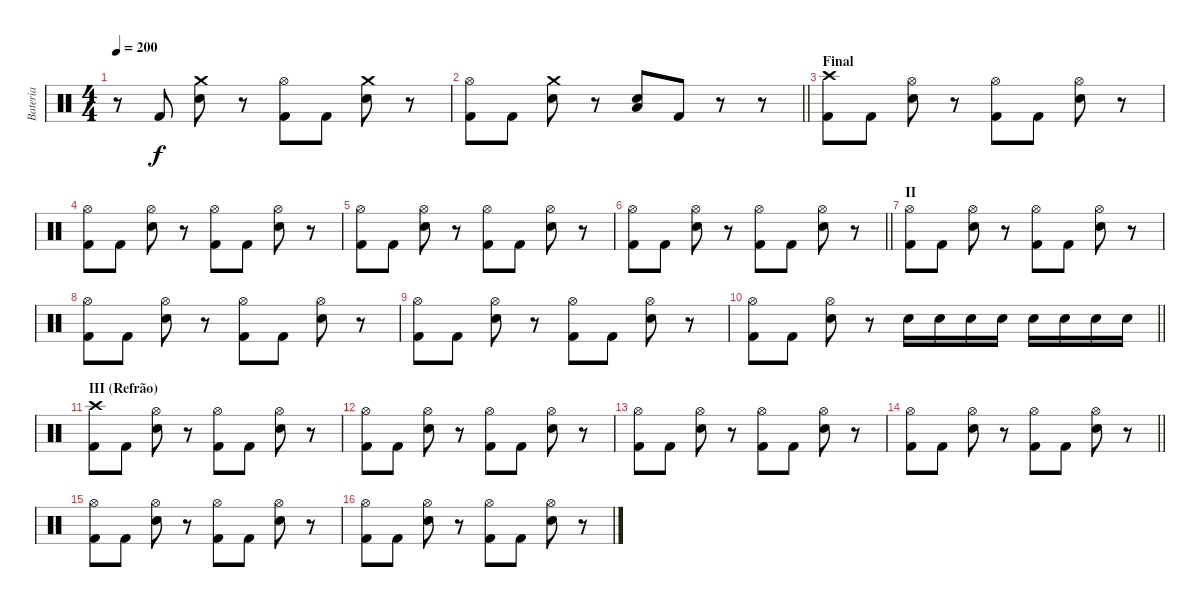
\track ("Bateria" "Bateria") {instrument percussion}
\staff {score}
\articulation defaults
\ts (4 4)
\tempo 200
\clef neutral
\ks c
r.8{dy f} "Kick (hit) 2".8 ("Electric Snare (hit)" "Crash medium (hit)").8 r.8 ("Kick (hit) 2" "Hi-Hat (open)").8 "Kick (hit) 2".8 ("Electric Snare (hit)" "Crash medium (hit)").8 r.8 |
\barLineRight lightlight
("Kick (hit) 2" "Hi-Hat (open)").8 "Kick (hit) 2".8 ("Electric Snare (hit)" "Crash medium (hit)").8 r.8 ("Electric Snare (hit)" "Low Tom (hit)").8 "Kick (hit) 2".8 r.8 r.8 |
\section ("" "Final")
("Kick (hit) 2" "Crash high (hit)").8 "Kick (hit) 2".8 ("Electric Snare (hit)" "Hi-Hat (open)").8 r.8 ("Kick (hit) 2" "Hi-Hat (open)").8 "Kick (hit) 2".8 ("Electric Snare (hit)" "Hi-Hat (open)").8 r.8 |
("Kick (hit) 2" "Hi-Hat (open)").8 "Kick (hit) 2".8 ("Electric Snare (hit)" "Hi-Hat (open)").8 r.8 ("Kick (hit) 2" "Hi-Hat (open)").8 "Kick (hit) 2".8 ("Electric Snare (hit)" "Hi-Hat (open)").8 r.8 |
("Kick (hit) 2" "Hi-Hat (open)").8 "Kick (hit) 2".8 ("Electric Snare (hit)" "Hi-Hat (open)").8 r.8 ("Kick (hit) 2" "Hi-Hat (open)").8 "Kick (hit) 2".8 ("Electric Snare (hit)" "Hi-Hat (open)").8 r.8 |
\barLineRight lightlight
("Kick (hit) 2" "Hi-Hat (open)").8 "Kick (hit) 2".8 ("Electric Snare (hit)" "Hi-Hat (open)").8 r.8 ("Kick (hit) 2" "Hi-Hat (open)").8 "Kick (hit) 2".8 ("Electric Snare (hit)" "Hi-Hat (open)").8 r.8 |
\section ("" "II")
("Kick (hit) 2" "Hi-Hat (open)").8 "Kick (hit) 2".8 ("Electric Snare (hit)" "Hi-Hat (open)").8 r.8 ("Kick (hit) 2" "Hi-Hat (open)").8 "Kick (hit) 2".8 ("Electric Snare (hit)" "Hi-Hat (open)").8 r.8 |
("Kick (hit) 2" "Hi-Hat (open)").8 "Kick (hit) 2".8 ("Electric Snare (hit)" "Hi-Hat (open)").8 r.8 ("Kick (hit) 2" "Hi-Hat (open)").8 "Kick (hit) 2".8 ("Electric Snare (hit)" "Hi-Hat (open)").8 r.8 |
("Kick (hit) 2" "Hi-Hat (open)").8 "Kick (hit) 2".8 ("Electric Snare (hit)" "Hi-Hat (open)").8 r.8 ("Kick (hit) 2" "Hi-Hat (open)").8 "Kick (hit) 2".8 ("Electric Snare (hit)" "Hi-Hat (open)").8 r.8 |
\barLineRight lightlight
("Kick (hit) 2" "Hi-Hat (open)").8 "Kick (hit) 2".8 ("Electric Snare (hit)" "Hi-Hat (open)").8 r.8 "Electric Snare (hit)".16 "Electric Snare (hit)".16 "Electric Snare (hit)".16 "Electric Snare (hit)".16 "Electric Snare (hit)".16 "Electric Snare (hit)".16 "Electric Snare (hit)".16 "Electric Snare (hit)".16 |
\section ("" "III (Refrão)")
("Kick (hit) 2" "Crash high (hit)").8 "Kick (hit) 2".8 ("Electric Snare (hit)" "Hi-Hat (open)").8 r.8 ("Kick (hit) 2" "Hi-Hat (open)").8 "Kick (hit) 2".8 ("Electric Snare (hit)" "Hi-Hat (open)").8 r.8 |
("Kick (hit) 2" "Hi-Hat (open)").8 "Kick (hit) 2".8 ("Electric Snare (hit)" "Hi-Hat (open)").8 r.8 ("Kick (hit) 2" "Hi-Hat (open)").8 "Kick (hit) 2".8 ("Electric Snare (hit)" "Hi-Hat (open)").8 r.8 |
("Kick (hit) 2" "Hi-Hat (open)").8 "Kick (hit) 2".8 ("Electric Snare (hit)" "Hi-Hat (open)").8 r.8 ("Kick (hit) 2" "Hi-Hat (open)").8 "Kick (hit) 2".8 ("Electric Snare (hit)" "Hi-Hat (open)").8 r.8 |
\barLineRight lightlight
("Kick (hit) 2" "Hi-Hat (open)").8 "Kick (hit) 2".8 ("Electric Snare (hit)" "Hi-Hat (open)").8 r.8 ("Kick (hit) 2" "Hi-Hat (open)").8 "Kick (hit) 2".8 ("Electric Snare (hit)" "Hi-Hat (open)").8 r.8 |
("Kick (hit) 2" "Hi-Hat (open)").8 "Kick (hit) 2".8 ("Electric Snare (hit)" "Hi-Hat (open)").8 r.8 ("Kick (hit) 2" "Hi-Hat (open)").8 "Kick (hit) 2".8 ("Electric Snare (hit)" "Hi-Hat (open)").8 r.8 |
("Kick (hit) 2" "Hi-Hat (open)").8 "Kick (hit) 2".8 ("Electric Snare (hit)" "Hi-Hat (open)").8 r.8 ("Kick (hit) 2" "Hi-Hat (open)").8 "Kick (hit) 2".8 ("Electric Snare (hit)" "Hi-Hat (open)").8 r.8
